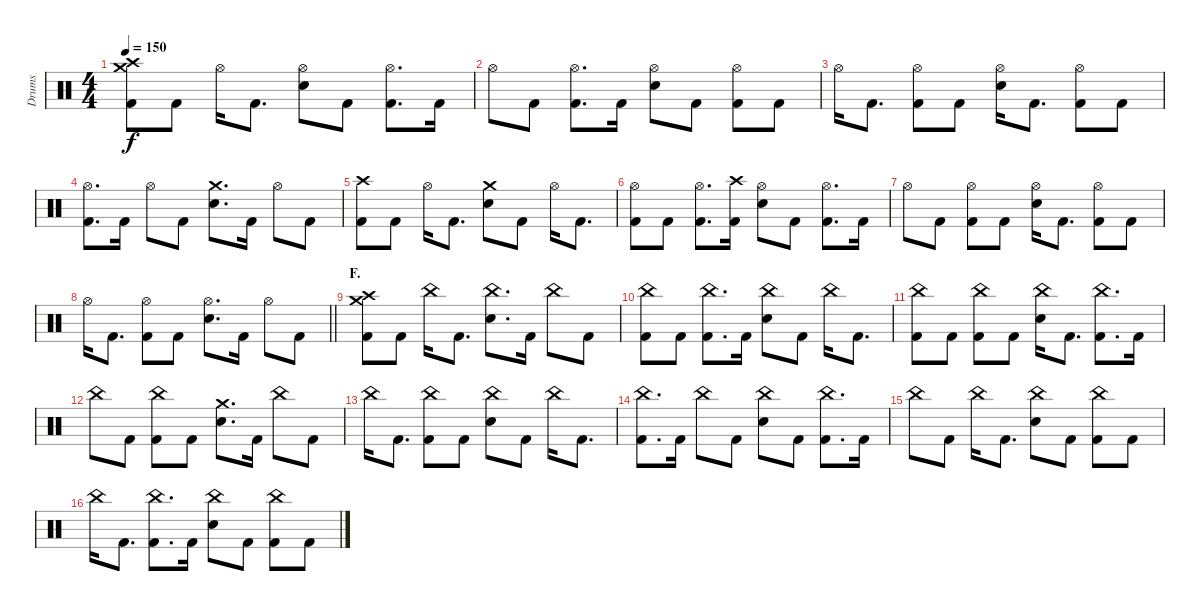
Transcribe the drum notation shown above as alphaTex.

\track ("Drums" "Drums") {instrument percussion}
\staff {score}
\articulation defaults
\ts (4 4)
\tempo 150
\clef neutral
\ks c
("Crash medium (hit)" "Crash high (hit)" "Kick (hit) 2").8{dy f} "Kick (hit) 2".8 "Hi-Hat (open)".16 "Kick (hit) 2".8{d} ("Hi-Hat (open)" "Electric Snare (hit)").8 "Kick (hit) 2".8 ("Hi-Hat (open)" "Kick (hit) 2").8{d} "Kick (hit) 2".16 |
"Hi-Hat (open)".8 "Kick (hit) 2".8 ("Hi-Hat (open)" "Kick (hit) 2").8{d} "Kick (hit) 2".16 ("Hi-Hat (open)" "Electric Snare (hit)").8 "Kick (hit) 2".8 ("Hi-Hat (open)" "Kick (hit) 2").8 "Kick (hit) 2".8 |
"Hi-Hat (open)".16 "Kick (hit) 2".8{d} ("Hi-Hat (open)" "Kick (hit) 2").8 "Kick (hit) 2".8 ("Hi-Hat (open)" "Electric Snare (hit)").16 "Kick (hit) 2".8{d} ("Hi-Hat (open)" "Kick (hit) 2").8 "Kick (hit) 2".8 |
("Hi-Hat (open)" "Kick (hit) 2").8{d} "Kick (hit) 2".16 "Hi-Hat (open)".8 "Kick (hit) 2".8 ("Crash medium (hit)" "Electric Snare (hit)").8{d} "Kick (hit) 2".16 "Hi-Hat (open)".8 "Kick (hit) 2".8 |
("Crash high (hit)" "Kick (hit) 2").8 "Kick (hit) 2".8 "Hi-Hat (open)".16 "Kick (hit) 2".8{d} ("Crash medium (hit)" "Electric Snare (hit)").8 "Kick (hit) 2".8 "Hi-Hat (open)".16 "Kick (hit) 2".8{d} |
("Hi-Hat (open)" "Kick (hit) 2").8 "Kick (hit) 2".8 ("Hi-Hat (open)" "Kick (hit) 2").8{d} ("Crash high (hit)" "Kick (hit) 2").16 ("Hi-Hat (open)" "Electric Snare (hit)").8 "Kick (hit) 2".8 ("Hi-Hat (open)" "Kick (hit) 2").8{d} "Kick (hit) 2".16 |
"Hi-Hat (open)".8 "Kick (hit) 2".8 ("Hi-Hat (open)" "Kick (hit) 2").8 "Kick (hit) 2".8 ("Hi-Hat (open)" "Electric Snare (hit)").16 "Kick (hit) 2".8{d} ("Hi-Hat (open)" "Kick (hit) 2").8 "Kick (hit) 2".8 |
\barLineRight lightlight "Hi-Hat (open)".16 "Kick (hit) 2".8{d}
("Hi-Hat (open)" "Kick (hit) 2").8 "Kick (hit) 2".8 ("Hi-Hat (open)" "Electric Snare (hit)").8{d} "Kick (hit) 2".16 "Hi-Hat (open)".8 "Kick (hit) 2".8 |
\section ("" "F.")
("Crash medium (hit)" "Crash high (hit)" "Kick (hit) 2").8 "Kick (hit) 2".8 "China (hit)".16 "Kick (hit) 2".8{d} ("China (hit)" "Electric Snare (hit)").8{d} "Kick (hit) 2".16 "China (hit)".8 "Kick (hit) 2".8 |
("China (hit)" "Kick (hit) 2").8 "Kick (hit) 2".8 ("China (hit)" "Kick (hit) 2").8{d} "Kick (hit) 2".16 ("China (hit)" "Electric Snare (hit)").8 "Kick (hit) 2".8 "China (hit)".16 "Kick (hit) 2".8{d} |
("China (hit)" "Kick (hit) 2").8 "Kick (hit) 2".8 ("China (hit)" "Kick (hit) 2").8 "Kick (hit) 2".8 ("China (hit)" "Electric Snare (hit)").16 "Kick (hit) 2".8{d} ("China (hit)" "Kick (hit) 2").8{d} "Kick (hit) 2".16 |
"China (hit)".8 "Kick (hit) 2".8 ("China (hit)" "Kick (hit) 2").8 "Kick (hit) 2".8 ("Crash medium (hit)" "Electric Snare (hit)").8{d} "Kick (hit) 2".16 "China (hit)".8 "Kick (hit) 2".8 |
"China (hit)".16 "Kick (hit) 2".8{d} ("China (hit)" "Kick (hit) 2").8 "Kick (hit) 2".8 ("China (hit)" "Electric Snare (hit)").8 "Kick (hit) 2".8 "China (hit)".16 "Kick (hit) 2".8{d} |
("China (hit)" "Kick (hit) 2").8{d} "Kick (hit) 2".16 "China (hit)".8 "Kick (hit) 2".8 ("China (hit)" "Electric Snare (hit)").8 "Kick (hit) 2".8 ("China (hit)" "Kick (hit) 2").8{d} "Kick (hit) 2".16 |
"China (hit)".8 "Kick (hit) 2".8 "China (hit)".16 "Kick (hit) 2".8{d} ("China (hit)" "Electric Snare (hit)").8 "Kick (hit) 2".8 ("China (hit)" "Kick (hit) 2").8 "Kick (hit) 2".8 |
"China (hit)".16 "Kick (hit) 2".8{d} ("China (hit)" "Kick (hit) 2").8{d} "Kick (hit) 2".16 ("China (hit)" "Electric Snare (hit)").8 "Kick (hit) 2".8 ("China (hit)" "Kick (hit) 2").8 "Kick (hit) 2".8
